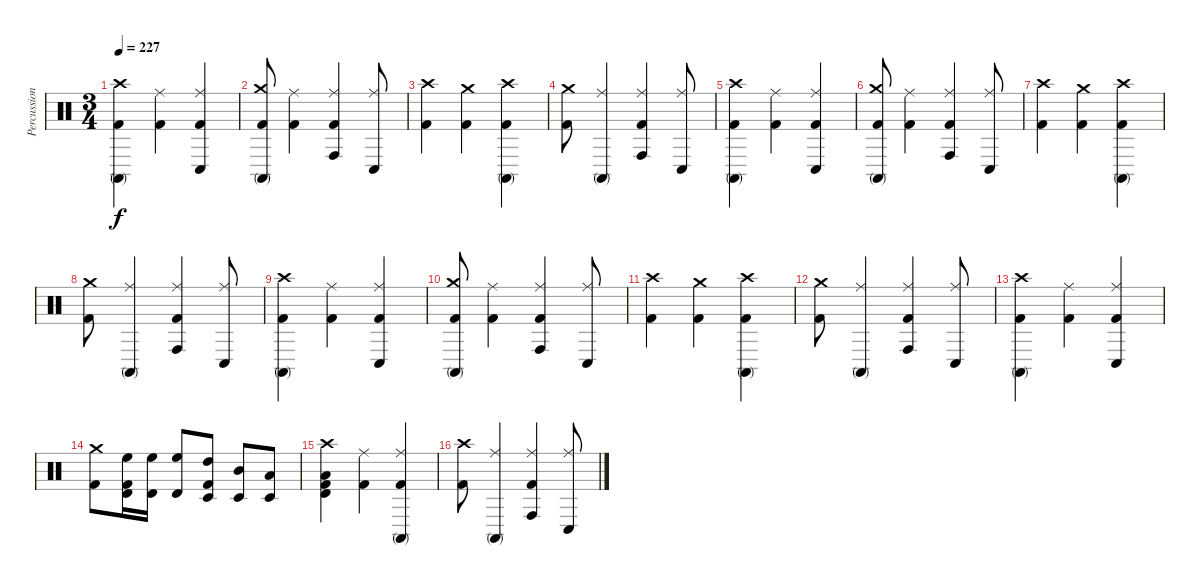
\track ("Percussion" "Percussion") {instrument percussion}
\staff {score}
\articulation defaults
\ts (3 4)
\tempo 227
\clef neutral
\ks c
("Crash high (hit)" "Conga high (mute)" "Kick (hit) 2").4{dy f} ("Ride (middle)" "Kick (hit) 2").4 ("Ride (middle)" "Conga low (hit)" "Kick (hit) 2").4 |
("Crash medium (hit)" "Conga high (mute)" "Kick (hit) 2").8 ("Ride (middle)" "Kick (hit) 2").4 ("Ride (middle)" "Conga high (hit)" "Kick (hit) 2").4 ("Ride (middle)" "Conga low (hit)").8 |
("Crash high (hit)" "Kick (hit) 2").4 ("Crash medium (hit)" "Kick (hit) 2").4 ("Crash high (hit)" "Conga high (mute)" "Kick (hit) 2").4 |
("Crash medium (hit)" "Kick (hit) 2").8 ("Ride (middle)" "Conga high (mute)").4 ("Ride (middle)" "Conga high (hit)" "Kick (hit) 2").4 ("Ride (middle)" "Conga low (hit)").8 |
("Crash high (hit)" "Conga high (mute)" "Kick (hit) 2").4 ("Ride (middle)" "Kick (hit) 2").4 ("Ride (middle)" "Conga low (hit)" "Kick (hit) 2").4 |
("Crash medium (hit)" "Conga high (mute)" "Kick (hit) 2").8 ("Ride (middle)" "Kick (hit) 2").4 ("Ride (middle)" "Conga high (hit)" "Kick (hit) 2").4 ("Ride (middle)" "Conga low (hit)").8 |
("Crash high (hit)" "Kick (hit) 2").4 ("Crash medium (hit)" "Kick (hit) 2").4 ("Crash high (hit)" "Conga high (mute)" "Kick (hit) 2").4 |
("Crash medium (hit)" "Kick (hit) 2").8 ("Ride (middle)" "Conga high (mute)").4 ("Ride (middle)" "Conga high (hit)" "Kick (hit) 2").4 ("Ride (middle)" "Conga low (hit)").8 |
("Crash high (hit)" "Conga high (mute)" "Kick (hit) 2").4 ("Ride (middle)" "Kick (hit) 2").4 ("Ride (middle)" "Conga low (hit)" "Kick (hit) 2").4 |
("Crash medium (hit)" "Conga high (mute)" "Kick (hit) 2").8 ("Ride (middle)" "Kick (hit) 2").4 ("Ride (middle)" "Conga high (hit)" "Kick (hit) 2").4 ("Ride (middle)" "Conga low (hit)").8 |
("Crash high (hit)" "Kick (hit) 2").4 ("Crash medium (hit)" "Kick (hit) 2").4 ("Crash high (hit)" "Conga high (mute)" "Kick (hit) 2").4 |
("Crash medium (hit)" "Kick (hit) 2").8 ("Ride (middle)" "Conga high (mute)").4 ("Ride (middle)" "Conga high (hit)" "Kick (hit) 2").4 ("Ride (middle)" "Conga low (hit)").8 |
("Crash high (hit)" "Conga high (mute)" "Kick (hit) 2").4 ("Ride (middle)" "Kick (hit) 2").4 ("Ride (middle)" "Conga low (hit)" "Kick (hit) 2").4 |
("Crash medium (hit)" "Kick (hit) 2").8 ("Timbale high (hit)" "High Floor Tom (hit)" "Kick (hit) 2").16 ("Timbale high (hit)" "High Floor Tom (hit)").16 ("Timbale high (hit)" "High Floor Tom (hit)").8 ("Timbale low (hit)" "High Tom (hit)" "Kick (hit) 2").8 ("Timbale low (hit)" "Mid Tom (hit)").8 ("Timbale low (hit)" "Low Tom (hit)").8 |
("Timbale high (hit)" "Crash high (hit)" "Low Tom (hit)" "Kick (hit) 2").4 ("Ride (middle)" "Kick (hit) 2").4 ("Ride (middle)" "Conga high (mute)" "Kick (hit) 2").4 |
("Crash high (hit)" "Kick (hit) 2").8 ("Ride (middle)" "Conga high (mute)").4 ("Ride (middle)" "Conga high (hit)" "Kick (hit) 2").4 ("Ride (middle)" "Conga low (hit)").8
